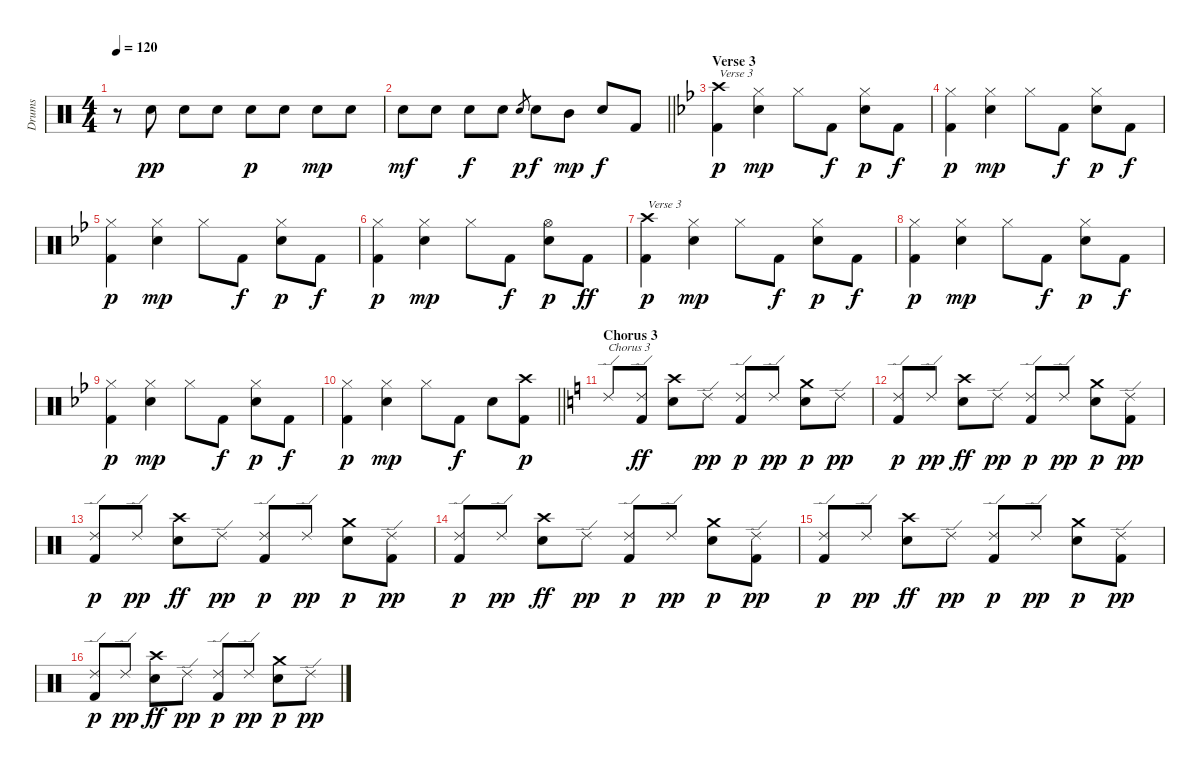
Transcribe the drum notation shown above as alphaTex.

\track ("Drums" "Drums") {instrument percussion}
\staff {score}
\articulation defaults
\ts (4 4)
\tempo 120
\clef neutral
\ks c
r.8{dy p} "Electric Snare (hit)".8{dy pp} "Electric Snare (hit)".8 "Electric Snare (hit)".8 "Electric Snare (hit)".8{dy p} "Electric Snare (hit)".8 "Electric Snare (hit)".8{dy mp} "Electric Snare (hit)".8 |
\barLineRight lightlight "Electric Snare (hit)".8{dy mf} "Electric Snare (hit)".8 "Electric Snare (hit)".8{dy f} "Electric Snare (hit)".8 "Electric Snare (hit)".8{gr dy p} "Electric Snare (hit)".8{dy f} "Mid Tom (hit)".8{dy mp} "Electric Snare (hit)".8{dy f} "Kick (hit) 2".8
|
\section ("" "Verse 3")
\ks bb
("Kick (hit) 2" "Crash high (hit)").4{txt "Verse 3" dy p} ("Electric Snare (hit)" "Hi-Hat (closed)").4{dy mp} "Hi-Hat (closed)".8 "Kick (hit) 2".8{dy f} ("Electric Snare (hit)" "Hi-Hat (closed)").8{dy p} "Kick (hit) 2".8{dy f} |
("Kick (hit) 2" "Hi-Hat (closed)").4{dy p} ("Electric Snare (hit)" "Hi-Hat (closed)").4{dy mp} "Hi-Hat (closed)".8 "Kick (hit) 2".8{dy f} ("Electric Snare (hit)" "Hi-Hat (closed)").8{dy p} "Kick (hit) 2".8{dy f} |
("Kick (hit) 2" "Hi-Hat (closed)").4{dy p} ("Electric Snare (hit)" "Hi-Hat (closed)").4{dy mp} "Hi-Hat (closed)".8 "Kick (hit) 2".8{dy f} ("Electric Snare (hit)" "Hi-Hat (closed)").8{dy p} "Kick (hit) 2".8{dy f} |
("Kick (hit) 2" "Hi-Hat (closed)").4{dy p} ("Electric Snare (hit)" "Hi-Hat (closed)").4{dy mp} "Hi-Hat (closed)".8 "Kick (hit) 2".8{dy f} ("Electric Snare (hit)" "Hi-Hat (open)").8{dy p} "Kick (hit) 2".8{dy ff} |
("Kick (hit) 2" "Crash high (hit)").4{txt "Verse 3" dy p} ("Electric Snare (hit)" "Hi-Hat (closed)").4{dy mp} "Hi-Hat (closed)".8 "Kick (hit) 2".8{dy f} ("Electric Snare (hit)" "Hi-Hat (closed)").8{dy p} "Kick (hit) 2".8{dy f} |
("Kick (hit) 2" "Hi-Hat (closed)").4{dy p} ("Electric Snare (hit)" "Hi-Hat (closed)").4{dy mp} "Hi-Hat (closed)".8 "Kick (hit) 2".8{dy f} ("Electric Snare (hit)" "Hi-Hat (closed)").8{dy p} "Kick (hit) 2".8{dy f} |
("Kick (hit) 2" "Hi-Hat (closed)").4{dy p} ("Electric Snare (hit)" "Hi-Hat (closed)").4{dy mp} "Hi-Hat (closed)".8 "Kick (hit) 2".8{dy f} ("Electric Snare (hit)" "Hi-Hat (closed)").8{dy p} "Kick (hit) 2".8{dy f} |
\barLineRight lightlight
("Kick (hit) 2" "Hi-Hat (closed)").4{dy p} ("Electric Snare (hit)" "Hi-Hat (closed)").4{dy mp} "Hi-Hat (closed)".8 "Kick (hit) 2".8{dy f} "Electric Snare (hit)".8 ("Kick (hit) 2" "Crash high (hit)").8{dy p} |
\section ("" "Chorus 3")
\ks c "Ride (edge) 2".8{txt "Chorus 3"}
("Ride (edge) 2" "Kick (hit) 2").8{dy ff} ("Crash high (hit)" "Electric Snare (hit)").8 "Ride (edge) 2".8{dy pp} ("Kick (hit) 2" "Ride (edge) 2").8{dy p} "Ride (edge) 2".8{dy pp} ("Electric Snare (hit)" "Crash medium (hit)").8{dy p} "Ride (edge) 2".8{dy pp} |
("Ride (edge) 2" "Kick (hit) 2").8{dy p} "Ride (edge) 2".8{dy pp} ("Crash high (hit)" "Electric Snare (hit)").8{dy ff} "Ride (edge) 2".8{dy pp} ("Kick (hit) 2" "Ride (edge) 2").8{dy p} "Ride (edge) 2".8{dy pp} ("Electric Snare (hit)" "Crash medium (hit)").8{dy p} ("Ride (edge) 2" "Kick (hit) 2").8{dy pp} |
("Ride (edge) 2" "Kick (hit) 2").8{dy p} "Ride (edge) 2".8{dy pp} ("Crash high (hit)" "Electric Snare (hit)").8{dy ff} "Ride (edge) 2".8{dy pp} ("Kick (hit) 2" "Ride (edge) 2").8{dy p} "Ride (edge) 2".8{dy pp} ("Electric Snare (hit)" "Crash medium (hit)").8{dy p} ("Ride (edge) 2" "Kick (hit) 2").8{dy pp} |
("Ride (edge) 2" "Kick (hit) 2").8{dy p} "Ride (edge) 2".8{dy pp} ("Crash high (hit)" "Electric Snare (hit)").8{dy ff} "Ride (edge) 2".8{dy pp} ("Kick (hit) 2" "Ride (edge) 2").8{dy p} "Ride (edge) 2".8{dy pp} ("Electric Snare (hit)" "Crash medium (hit)").8{dy p} ("Ride (edge) 2" "Kick (hit) 2").8{dy pp} |
("Ride (edge) 2" "Kick (hit) 2").8{dy p} "Ride (edge) 2".8{dy pp} ("Crash high (hit)" "Electric Snare (hit)").8{dy ff} "Ride (edge) 2".8{dy pp} ("Kick (hit) 2" "Ride (edge) 2").8{dy p} "Ride (edge) 2".8{dy pp} ("Electric Snare (hit)" "Crash medium (hit)").8{dy p} ("Ride (edge) 2" "Kick (hit) 2").8{dy pp} |
("Ride (edge) 2" "Kick (hit) 2").8{dy p} "Ride (edge) 2".8{dy pp} ("Crash high (hit)" "Electric Snare (hit)").8{dy ff} "Ride (edge) 2".8{dy pp} ("Kick (hit) 2" "Ride (edge) 2").8{dy p} "Ride (edge) 2".8{dy pp} ("Electric Snare (hit)" "Crash medium (hit)").8{dy p} "Ride (edge) 2".8{dy pp}
